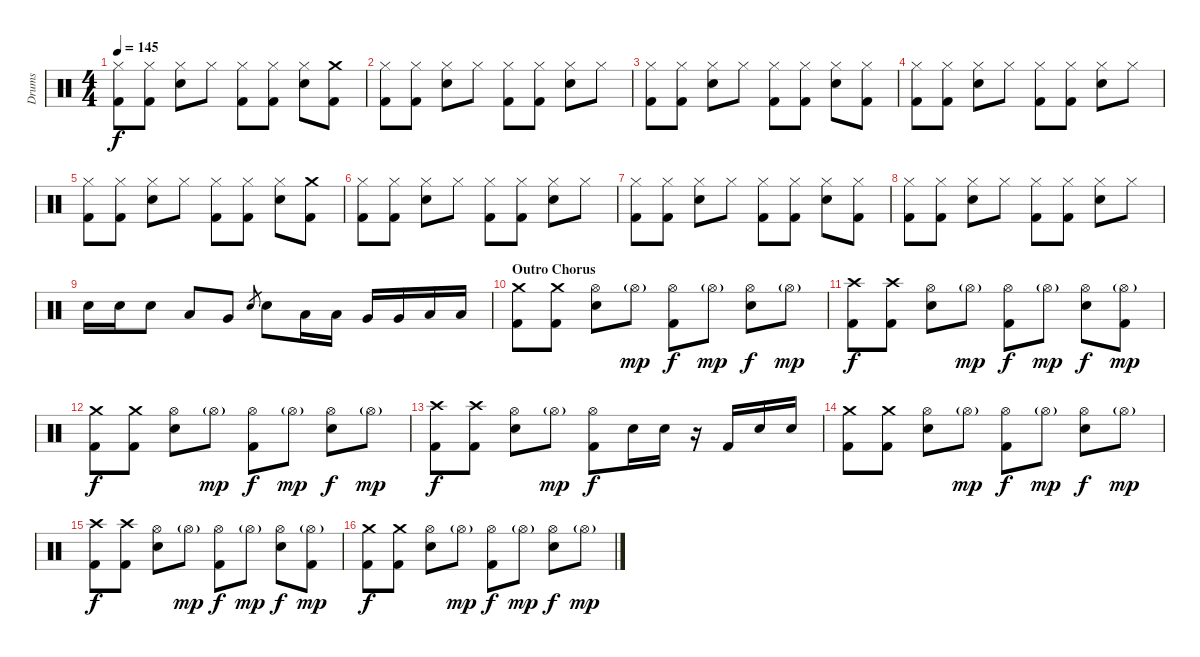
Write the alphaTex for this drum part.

\track ("Drums" "Drums") {instrument percussion}
\staff {score}
\articulation defaults
\ts (4 4)
\tempo 145
\clef neutral
\ks c
("Hi-Hat (closed)" "Kick (hit) 2").8{dy f} ("Hi-Hat (closed)" "Kick (hit) 2").8 ("Hi-Hat (closed)" "Electric Snare (hit)").8 "Hi-Hat (closed)".8 ("Hi-Hat (closed)" "Kick (hit) 2").8 ("Hi-Hat (closed)" "Kick (hit) 2").8 ("Hi-Hat (closed)" "Electric Snare (hit)").8 ("Crash medium (hit)" "Kick (hit) 2").8 |
("Hi-Hat (closed)" "Kick (hit) 2").8 ("Hi-Hat (closed)" "Kick (hit) 2").8 ("Hi-Hat (closed)" "Electric Snare (hit)").8 "Hi-Hat (closed)".8 ("Hi-Hat (closed)" "Kick (hit) 2").8 ("Hi-Hat (closed)" "Kick (hit) 2").8 ("Hi-Hat (closed)" "Electric Snare (hit)").8 "Hi-Hat (closed)".8 |
("Hi-Hat (closed)" "Kick (hit) 2").8 ("Hi-Hat (closed)" "Kick (hit) 2").8 ("Hi-Hat (closed)" "Electric Snare (hit)").8 "Hi-Hat (closed)".8 ("Hi-Hat (closed)" "Kick (hit) 2").8 ("Hi-Hat (closed)" "Kick (hit) 2").8 ("Hi-Hat (closed)" "Electric Snare (hit)").8 ("Hi-Hat (closed)" "Kick (hit) 2").8 |
("Hi-Hat (closed)" "Kick (hit) 2").8 ("Hi-Hat (closed)" "Kick (hit) 2").8 ("Hi-Hat (closed)" "Electric Snare (hit)").8 "Hi-Hat (closed)".8 ("Hi-Hat (closed)" "Kick (hit) 2").8 ("Hi-Hat (closed)" "Kick (hit) 2").8 ("Hi-Hat (closed)" "Electric Snare (hit)").8 "Hi-Hat (closed)".8 |
("Hi-Hat (closed)" "Kick (hit) 2").8 ("Hi-Hat (closed)" "Kick (hit) 2").8 ("Hi-Hat (closed)" "Electric Snare (hit)").8 "Hi-Hat (closed)".8 ("Hi-Hat (closed)" "Kick (hit) 2").8 ("Hi-Hat (closed)" "Kick (hit) 2").8 ("Hi-Hat (closed)" "Electric Snare (hit)").8 ("Crash medium (hit)" "Kick (hit) 2").8 |
("Hi-Hat (closed)" "Kick (hit) 2").8 ("Hi-Hat (closed)" "Kick (hit) 2").8 ("Hi-Hat (closed)" "Electric Snare (hit)").8 "Hi-Hat (closed)".8 ("Hi-Hat (closed)" "Kick (hit) 2").8 ("Hi-Hat (closed)" "Kick (hit) 2").8 ("Hi-Hat (closed)" "Electric Snare (hit)").8 "Hi-Hat (closed)".8 |
("Hi-Hat (closed)" "Kick (hit) 2").8 ("Hi-Hat (closed)" "Kick (hit) 2").8 ("Hi-Hat (closed)" "Electric Snare (hit)").8 "Hi-Hat (closed)".8 ("Hi-Hat (closed)" "Kick (hit) 2").8 ("Hi-Hat (closed)" "Kick (hit) 2").8 ("Hi-Hat (closed)" "Electric Snare (hit)").8 ("Hi-Hat (closed)" "Kick (hit) 2").8 |
("Hi-Hat (closed)" "Kick (hit) 2").8 ("Hi-Hat (closed)" "Kick (hit) 2").8 ("Hi-Hat (closed)" "Electric Snare (hit)").8 "Hi-Hat (closed)".8 ("Hi-Hat (closed)" "Kick (hit) 2").8 ("Hi-Hat (closed)" "Kick (hit) 2").8 ("Hi-Hat (closed)" "Electric Snare (hit)").8 "Hi-Hat (closed)".8 |
"Electric Snare (hit)".16 "Electric Snare (hit)".16 "Electric Snare (hit)".8 "Low Tom (hit)".8 "Very Low Tom (hit)".8 "Electric Snare (hit)".8{gr} "Electric Snare (hit)".8 "Low Tom (hit)".16 "Low Tom (hit)".16 "Very Low Tom (hit)".16 "Very Low Tom (hit)".16 "Low Floor Tom (hit)".16 "Low Floor Tom (hit)".16 |
\section ("" "Outro Chorus")
("Crash medium (hit)" "Kick (hit) 2").8 ("Crash medium (hit)" "Kick (hit) 2").8 ("Hi-Hat (open)" "Electric Snare (hit)").8 "Hi-Hat (open)"{g}.8{dy mp} ("Hi-Hat (open)" "Kick (hit) 2").8{dy f} "Hi-Hat (open)"{g}.8{dy mp} ("Hi-Hat (open)" "Electric Snare (hit)").8{dy f} "Hi-Hat (open)"{g}.8{dy mp} |
("Crash high (hit)" "Kick (hit) 2").8{dy f} ("Crash high (hit)" "Kick (hit) 2").8 ("Hi-Hat (open)" "Electric Snare (hit)").8 "Hi-Hat (open)"{g}.8{dy mp} ("Hi-Hat (open)" "Kick (hit) 2").8{dy f} "Hi-Hat (open)"{g}.8{dy mp} ("Hi-Hat (open)" "Electric Snare (hit)").8{dy f} ("Hi-Hat (open)"{g} "Kick (hit) 2").8{dy mp} |
("Crash medium (hit)" "Kick (hit) 2").8{dy f} ("Crash medium (hit)" "Kick (hit) 2").8 ("Hi-Hat (open)" "Electric Snare (hit)").8 "Hi-Hat (open)"{g}.8{dy mp} ("Hi-Hat (open)" "Kick (hit) 2").8{dy f} "Hi-Hat (open)"{g}.8{dy mp} ("Hi-Hat (open)" "Electric Snare (hit)").8{dy f} "Hi-Hat (open)"{g}.8{dy mp} |
("Crash high (hit)" "Kick (hit) 2").8{dy f} ("Crash high (hit)" "Kick (hit) 2").8 ("Hi-Hat (open)" "Electric Snare (hit)").8 "Hi-Hat (open)"{g}.8{dy mp} ("Hi-Hat (open)" "Kick (hit) 2").8{dy f} "Electric Snare (hit)".16 "Electric Snare (hit)".16 r.16 "Kick (hit) 2".16 "Electric Snare (hit)".16 "Electric Snare (hit)".16 |
("Crash medium (hit)" "Kick (hit) 2").8 ("Crash medium (hit)" "Kick (hit) 2").8 ("Hi-Hat (open)" "Electric Snare (hit)").8 "Hi-Hat (open)"{g}.8{dy mp} ("Hi-Hat (open)" "Kick (hit) 2").8{dy f} "Hi-Hat (open)"{g}.8{dy mp} ("Hi-Hat (open)" "Electric Snare (hit)").8{dy f} "Hi-Hat (open)"{g}.8{dy mp} |
("Crash high (hit)" "Kick (hit) 2").8{dy f} ("Crash high (hit)" "Kick (hit) 2").8 ("Hi-Hat (open)" "Electric Snare (hit)").8 "Hi-Hat (open)"{g}.8{dy mp} ("Hi-Hat (open)" "Kick (hit) 2").8{dy f} "Hi-Hat (open)"{g}.8{dy mp} ("Hi-Hat (open)" "Electric Snare (hit)").8{dy f} ("Hi-Hat (open)"{g} "Kick (hit) 2").8{dy mp} |
("Crash medium (hit)" "Kick (hit) 2").8{dy f} ("Crash medium (hit)" "Kick (hit) 2").8 ("Hi-Hat (open)" "Electric Snare (hit)").8 "Hi-Hat (open)"{g}.8{dy mp} ("Hi-Hat (open)" "Kick (hit) 2").8{dy f} "Hi-Hat (open)"{g}.8{dy mp} ("Hi-Hat (open)" "Electric Snare (hit)").8{dy f} "Hi-Hat (open)"{g}.8{dy mp}
